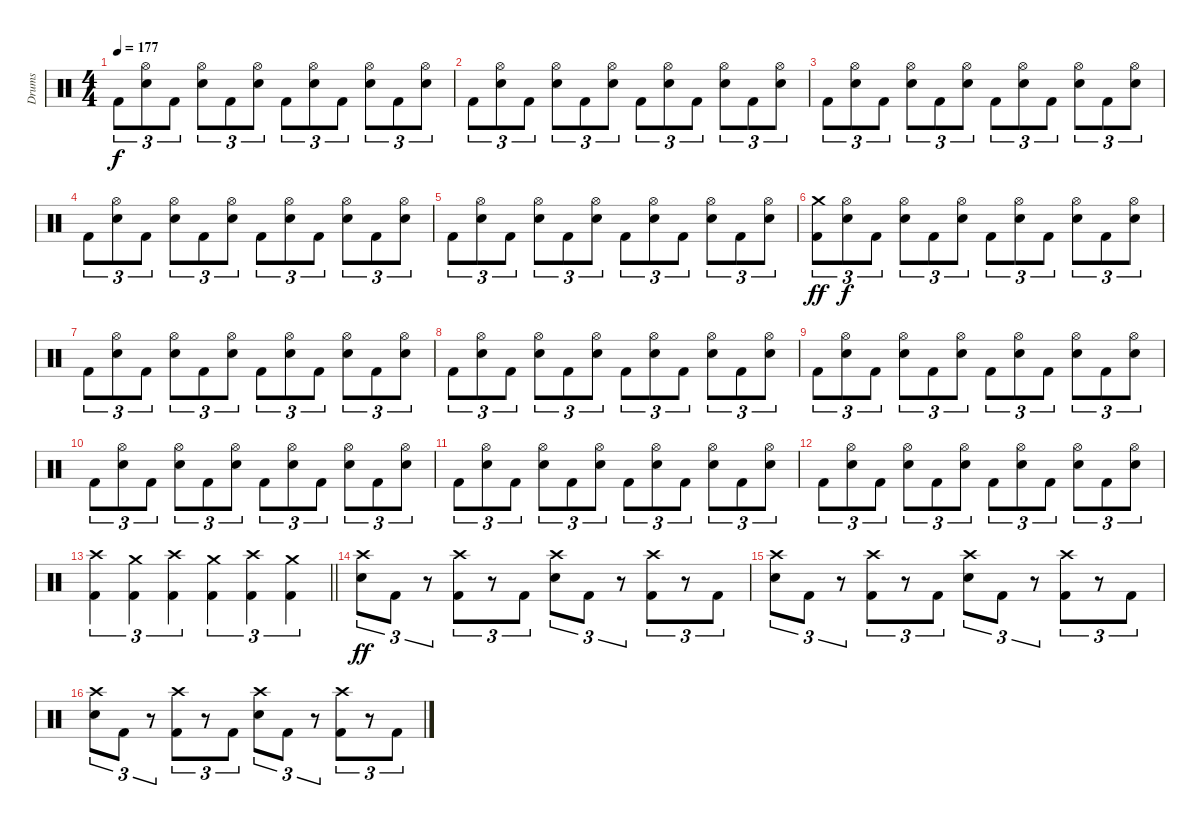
\track ("Drums" "Drums") {instrument percussion}
\staff {score}
\articulation defaults
\ts (4 4)
\tempo 177
\clef neutral
\ks c "Kick (hit) 2".8{tu (3 2) dy f}
("Hi-Hat (open)" "Electric Snare (hit)").8{tu (3 2)} "Kick (hit) 2".8{tu (3 2)} ("Hi-Hat (open)" "Electric Snare (hit)").8{tu (3 2)} "Kick (hit) 2".8{tu (3 2)} ("Hi-Hat (open)" "Electric Snare (hit)").8{tu (3 2)} "Kick (hit) 2".8{tu (3 2)} ("Hi-Hat (open)" "Electric Snare (hit)").8{tu (3 2)} "Kick (hit) 2".8{tu (3 2)} ("Hi-Hat (open)" "Electric Snare (hit)").8{tu (3 2)} "Kick (hit) 2".8{tu (3 2)} ("Hi-Hat (open)" "Electric Snare (hit)").8{tu (3 2)} |
"Kick (hit) 2".8{tu (3 2)} ("Hi-Hat (open)" "Electric Snare (hit)").8{tu (3 2)} "Kick (hit) 2".8{tu (3 2)} ("Hi-Hat (open)" "Electric Snare (hit)").8{tu (3 2)} "Kick (hit) 2".8{tu (3 2)} ("Hi-Hat (open)" "Electric Snare (hit)").8{tu (3 2)} "Kick (hit) 2".8{tu (3 2)} ("Hi-Hat (open)" "Electric Snare (hit)").8{tu (3 2)} "Kick (hit) 2".8{tu (3 2)} ("Hi-Hat (open)" "Electric Snare (hit)").8{tu (3 2)} "Kick (hit) 2".8{tu (3 2)} ("Hi-Hat (open)" "Electric Snare (hit)").8{tu (3 2)} |
"Kick (hit) 2".8{tu (3 2)} ("Hi-Hat (open)" "Electric Snare (hit)").8{tu (3 2)} "Kick (hit) 2".8{tu (3 2)} ("Hi-Hat (open)" "Electric Snare (hit)").8{tu (3 2)} "Kick (hit) 2".8{tu (3 2)} ("Hi-Hat (open)" "Electric Snare (hit)").8{tu (3 2)} "Kick (hit) 2".8{tu (3 2)} ("Hi-Hat (open)" "Electric Snare (hit)").8{tu (3 2)} "Kick (hit) 2".8{tu (3 2)} ("Hi-Hat (open)" "Electric Snare (hit)").8{tu (3 2)} "Kick (hit) 2".8{tu (3 2)} ("Hi-Hat (open)" "Electric Snare (hit)").8{tu (3 2)} |
"Kick (hit) 2".8{tu (3 2)} ("Hi-Hat (open)" "Electric Snare (hit)").8{tu (3 2)} "Kick (hit) 2".8{tu (3 2)} ("Hi-Hat (open)" "Electric Snare (hit)").8{tu (3 2)} "Kick (hit) 2".8{tu (3 2)} ("Hi-Hat (open)" "Electric Snare (hit)").8{tu (3 2)} "Kick (hit) 2".8{tu (3 2)} ("Hi-Hat (open)" "Electric Snare (hit)").8{tu (3 2)} "Kick (hit) 2".8{tu (3 2)} ("Hi-Hat (open)" "Electric Snare (hit)").8{tu (3 2)} "Kick (hit) 2".8{tu (3 2)} ("Hi-Hat (open)" "Electric Snare (hit)").8{tu (3 2)} |
"Kick (hit) 2".8{tu (3 2)} ("Hi-Hat (open)" "Electric Snare (hit)").8{tu (3 2)} "Kick (hit) 2".8{tu (3 2)} ("Hi-Hat (open)" "Electric Snare (hit)").8{tu (3 2)} "Kick (hit) 2".8{tu (3 2)} ("Hi-Hat (open)" "Electric Snare (hit)").8{tu (3 2)} "Kick (hit) 2".8{tu (3 2)} ("Hi-Hat (open)" "Electric Snare (hit)").8{tu (3 2)} "Kick (hit) 2".8{tu (3 2)} ("Hi-Hat (open)" "Electric Snare (hit)").8{tu (3 2)} "Kick (hit) 2".8{tu (3 2)} ("Hi-Hat (open)" "Electric Snare (hit)").8{tu (3 2)} |
("Crash medium (hit)" "Kick (hit) 2").8{tu (3 2) dy ff} ("Hi-Hat (open)" "Electric Snare (hit)").8{tu (3 2) dy f} "Kick (hit) 2".8{tu (3 2)} ("Hi-Hat (open)" "Electric Snare (hit)").8{tu (3 2)} "Kick (hit) 2".8{tu (3 2)} ("Hi-Hat (open)" "Electric Snare (hit)").8{tu (3 2)} "Kick (hit) 2".8{tu (3 2)} ("Hi-Hat (open)" "Electric Snare (hit)").8{tu (3 2)} "Kick (hit) 2".8{tu (3 2)} ("Hi-Hat (open)" "Electric Snare (hit)").8{tu (3 2)} "Kick (hit) 2".8{tu (3 2)} ("Hi-Hat (open)" "Electric Snare (hit)").8{tu (3 2)} |
"Kick (hit) 2".8{tu (3 2)} ("Hi-Hat (open)" "Electric Snare (hit)").8{tu (3 2)} "Kick (hit) 2".8{tu (3 2)} ("Hi-Hat (open)" "Electric Snare (hit)").8{tu (3 2)} "Kick (hit) 2".8{tu (3 2)} ("Hi-Hat (open)" "Electric Snare (hit)").8{tu (3 2)} "Kick (hit) 2".8{tu (3 2)} ("Hi-Hat (open)" "Electric Snare (hit)").8{tu (3 2)} "Kick (hit) 2".8{tu (3 2)} ("Hi-Hat (open)" "Electric Snare (hit)").8{tu (3 2)} "Kick (hit) 2".8{tu (3 2)} ("Hi-Hat (open)" "Electric Snare (hit)").8{tu (3 2)} |
"Kick (hit) 2".8{tu (3 2)} ("Hi-Hat (open)" "Electric Snare (hit)").8{tu (3 2)} "Kick (hit) 2".8{tu (3 2)} ("Hi-Hat (open)" "Electric Snare (hit)").8{tu (3 2)} "Kick (hit) 2".8{tu (3 2)} ("Hi-Hat (open)" "Electric Snare (hit)").8{tu (3 2)} "Kick (hit) 2".8{tu (3 2)} ("Hi-Hat (open)" "Electric Snare (hit)").8{tu (3 2)} "Kick (hit) 2".8{tu (3 2)} ("Hi-Hat (open)" "Electric Snare (hit)").8{tu (3 2)} "Kick (hit) 2".8{tu (3 2)} ("Hi-Hat (open)" "Electric Snare (hit)").8{tu (3 2)} |
"Kick (hit) 2".8{tu (3 2)} ("Hi-Hat (open)" "Electric Snare (hit)").8{tu (3 2)} "Kick (hit) 2".8{tu (3 2)} ("Hi-Hat (open)" "Electric Snare (hit)").8{tu (3 2)} "Kick (hit) 2".8{tu (3 2)} ("Hi-Hat (open)" "Electric Snare (hit)").8{tu (3 2)} "Kick (hit) 2".8{tu (3 2)} ("Hi-Hat (open)" "Electric Snare (hit)").8{tu (3 2)} "Kick (hit) 2".8{tu (3 2)} ("Hi-Hat (open)" "Electric Snare (hit)").8{tu (3 2)} "Kick (hit) 2".8{tu (3 2)} ("Hi-Hat (open)" "Electric Snare (hit)").8{tu (3 2)} |
"Kick (hit) 2".8{tu (3 2)} ("Hi-Hat (open)" "Electric Snare (hit)").8{tu (3 2)} "Kick (hit) 2".8{tu (3 2)} ("Hi-Hat (open)" "Electric Snare (hit)").8{tu (3 2)} "Kick (hit) 2".8{tu (3 2)} ("Hi-Hat (open)" "Electric Snare (hit)").8{tu (3 2)} "Kick (hit) 2".8{tu (3 2)} ("Hi-Hat (open)" "Electric Snare (hit)").8{tu (3 2)} "Kick (hit) 2".8{tu (3 2)} ("Hi-Hat (open)" "Electric Snare (hit)").8{tu (3 2)} "Kick (hit) 2".8{tu (3 2)} ("Hi-Hat (open)" "Electric Snare (hit)").8{tu (3 2)} |
"Kick (hit) 2".8{tu (3 2)} ("Hi-Hat (open)" "Electric Snare (hit)").8{tu (3 2)} "Kick (hit) 2".8{tu (3 2)} ("Hi-Hat (open)" "Electric Snare (hit)").8{tu (3 2)} "Kick (hit) 2".8{tu (3 2)} ("Hi-Hat (open)" "Electric Snare (hit)").8{tu (3 2)} "Kick (hit) 2".8{tu (3 2)} ("Hi-Hat (open)" "Electric Snare (hit)").8{tu (3 2)} "Kick (hit) 2".8{tu (3 2)} ("Hi-Hat (open)" "Electric Snare (hit)").8{tu (3 2)} "Kick (hit) 2".8{tu (3 2)} ("Hi-Hat (open)" "Electric Snare (hit)").8{tu (3 2)} |
"Kick (hit) 2".8{tu (3 2)} ("Hi-Hat (open)" "Electric Snare (hit)").8{tu (3 2)} "Kick (hit) 2".8{tu (3 2)} ("Hi-Hat (open)" "Electric Snare (hit)").8{tu (3 2)} "Kick (hit) 2".8{tu (3 2)} ("Hi-Hat (open)" "Electric Snare (hit)").8{tu (3 2)} "Kick (hit) 2".8{tu (3 2)} ("Hi-Hat (open)" "Electric Snare (hit)").8{tu (3 2)} "Kick (hit) 2".8{tu (3 2)} ("Hi-Hat (open)" "Electric Snare (hit)").8{tu (3 2)} "Kick (hit) 2".8{tu (3 2)} ("Hi-Hat (open)" "Electric Snare (hit)").8{tu (3 2)} |
\barLineRight lightlight
("Crash high (hit)" "Kick (hit) 2").4{tu (3 2)} ("Crash medium (hit)" "Kick (hit) 2").4{tu (3 2)} ("Crash high (hit)" "Kick (hit) 2").4{tu (3 2)} ("Crash medium (hit)" "Kick (hit) 2").4{tu (3 2)} ("Crash high (hit)" "Kick (hit) 2").4{tu (3 2)} ("Crash medium (hit)" "Kick (hit) 2").4{tu (3 2)} |
("Crash high (hit)" "Electric Snare (hit)").8{tu (3 2) dy ff} "Kick (hit) 2".8{tu (3 2)} r.8{tu (3 2)} ("Crash high (hit)" "Kick (hit) 2").8{tu (3 2)} r.8{tu (3 2)} "Kick (hit) 2".8{tu (3 2)} ("Crash high (hit)" "Electric Snare (hit)").8{tu (3 2)} "Kick (hit) 2".8{tu (3 2)} r.8{tu (3 2)} ("Crash high (hit)" "Kick (hit) 2").8{tu (3 2)} r.8{tu (3 2)} "Kick (hit) 2".8{tu (3 2)} |
("Crash high (hit)" "Electric Snare (hit)").8{tu (3 2)} "Kick (hit) 2".8{tu (3 2)} r.8{tu (3 2)} ("Crash high (hit)" "Kick (hit) 2").8{tu (3 2)} r.8{tu (3 2)} "Kick (hit) 2".8{tu (3 2)} ("Crash high (hit)" "Electric Snare (hit)").8{tu (3 2)} "Kick (hit) 2".8{tu (3 2)} r.8{tu (3 2)} ("Crash high (hit)" "Kick (hit) 2").8{tu (3 2)} r.8{tu (3 2)} "Kick (hit) 2".8{tu (3 2)} |
("Crash high (hit)" "Electric Snare (hit)").8{tu (3 2)} "Kick (hit) 2".8{tu (3 2)} r.8{tu (3 2)} ("Crash high (hit)" "Kick (hit) 2").8{tu (3 2)} r.8{tu (3 2)} "Kick (hit) 2".8{tu (3 2)} ("Crash high (hit)" "Electric Snare (hit)").8{tu (3 2)} "Kick (hit) 2".8{tu (3 2)} r.8{tu (3 2)} ("Crash high (hit)" "Kick (hit) 2").8{tu (3 2)} r.8{tu (3 2)} "Kick (hit) 2".8{tu (3 2)}
